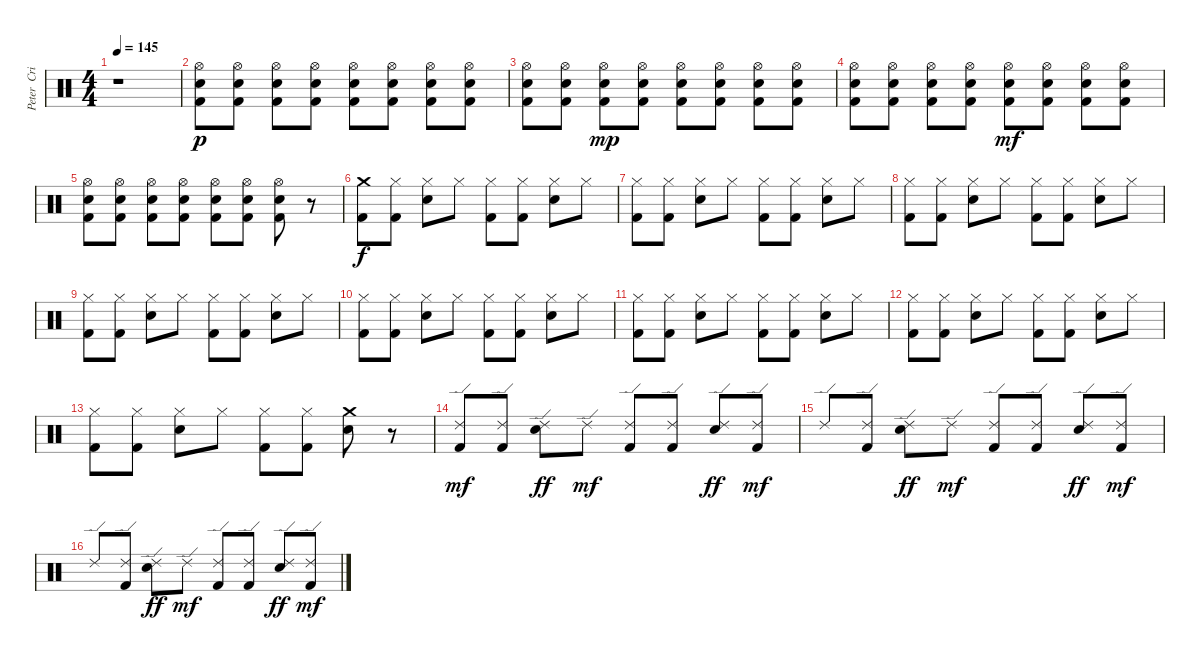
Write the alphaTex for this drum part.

\track ("Peter  Criss [Drums]" "Peter  Cri") {instrument percussion}
\staff {score}
\articulation defaults
\ts (4 4)
\tempo 145
\clef neutral
\ks c
r.1{dy p} |
("Hi-Hat (open)" "Electric Snare (hit)" "Kick (hit) 2").8 ("Hi-Hat (open)" "Electric Snare (hit)" "Kick (hit) 2").8 ("Hi-Hat (open)" "Electric Snare (hit)" "Kick (hit) 2").8 ("Hi-Hat (open)" "Electric Snare (hit)" "Kick (hit) 2").8 ("Hi-Hat (open)" "Electric Snare (hit)" "Kick (hit) 2").8 ("Hi-Hat (open)" "Electric Snare (hit)" "Kick (hit) 2").8 ("Hi-Hat (open)" "Electric Snare (hit)" "Kick (hit) 2").8 ("Hi-Hat (open)" "Electric Snare (hit)" "Kick (hit) 2").8 |
("Hi-Hat (open)" "Electric Snare (hit)" "Kick (hit) 2").8 ("Hi-Hat (open)" "Electric Snare (hit)" "Kick (hit) 2").8 ("Hi-Hat (open)" "Electric Snare (hit)" "Kick (hit) 2").8{dy mp} ("Hi-Hat (open)" "Electric Snare (hit)" "Kick (hit) 2").8 ("Hi-Hat (open)" "Electric Snare (hit)" "Kick (hit) 2").8 ("Hi-Hat (open)" "Electric Snare (hit)" "Kick (hit) 2").8 ("Hi-Hat (open)" "Electric Snare (hit)" "Kick (hit) 2").8 ("Hi-Hat (open)" "Electric Snare (hit)" "Kick (hit) 2").8 |
("Hi-Hat (open)" "Electric Snare (hit)" "Kick (hit) 2").8 ("Hi-Hat (open)" "Electric Snare (hit)" "Kick (hit) 2").8 ("Hi-Hat (open)" "Electric Snare (hit)" "Kick (hit) 2").8 ("Hi-Hat (open)" "Electric Snare (hit)" "Kick (hit) 2").8 ("Hi-Hat (open)" "Electric Snare (hit)" "Kick (hit) 2").8{dy mf} ("Hi-Hat (open)" "Electric Snare (hit)" "Kick (hit) 2").8 ("Hi-Hat (open)" "Electric Snare (hit)" "Kick (hit) 2").8 ("Hi-Hat (open)" "Electric Snare (hit)" "Kick (hit) 2").8 |
("Hi-Hat (open)" "Electric Snare (hit)" "Kick (hit) 2").8 ("Hi-Hat (open)" "Electric Snare (hit)" "Kick (hit) 2").8 ("Hi-Hat (open)" "Electric Snare (hit)" "Kick (hit) 2").8 ("Hi-Hat (open)" "Electric Snare (hit)" "Kick (hit) 2").8 ("Hi-Hat (open)" "Electric Snare (hit)" "Kick (hit) 2").8 ("Hi-Hat (open)" "Electric Snare (hit)" "Kick (hit) 2").8 ("Hi-Hat (open)" "Electric Snare (hit)" "Kick (hit) 2").8 r.8 |
("Crash medium (hit)" "Kick (hit) 2").8{dy f} ("Hi-Hat (closed)" "Kick (hit) 2").8 ("Hi-Hat (closed)" "Electric Snare (hit)").8 "Hi-Hat (closed)".8 ("Hi-Hat (closed)" "Kick (hit) 2").8 ("Hi-Hat (closed)" "Kick (hit) 2").8 ("Hi-Hat (closed)" "Electric Snare (hit)").8 "Hi-Hat (closed)".8 |
("Hi-Hat (closed)" "Kick (hit) 2").8 ("Hi-Hat (closed)" "Kick (hit) 2").8 ("Hi-Hat (closed)" "Electric Snare (hit)").8 "Hi-Hat (closed)".8 ("Hi-Hat (closed)" "Kick (hit) 2").8 ("Hi-Hat (closed)" "Kick (hit) 2").8 ("Hi-Hat (closed)" "Electric Snare (hit)").8 "Hi-Hat (closed)".8 |
("Hi-Hat (closed)" "Kick (hit) 2").8 ("Hi-Hat (closed)" "Kick (hit) 2").8 ("Hi-Hat (closed)" "Electric Snare (hit)").8 "Hi-Hat (closed)".8 ("Hi-Hat (closed)" "Kick (hit) 2").8 ("Hi-Hat (closed)" "Kick (hit) 2").8 ("Hi-Hat (closed)" "Electric Snare (hit)").8 "Hi-Hat (closed)".8 |
("Hi-Hat (closed)" "Kick (hit) 2").8 ("Hi-Hat (closed)" "Kick (hit) 2").8 ("Hi-Hat (closed)" "Electric Snare (hit)").8 "Hi-Hat (closed)".8 ("Hi-Hat (closed)" "Kick (hit) 2").8 ("Hi-Hat (closed)" "Kick (hit) 2").8 ("Hi-Hat (closed)" "Electric Snare (hit)").8 "Hi-Hat (closed)".8 |
("Hi-Hat (closed)" "Kick (hit) 2").8 ("Hi-Hat (closed)" "Kick (hit) 2").8 ("Hi-Hat (closed)" "Electric Snare (hit)").8 "Hi-Hat (closed)".8 ("Hi-Hat (closed)" "Kick (hit) 2").8 ("Hi-Hat (closed)" "Kick (hit) 2").8 ("Hi-Hat (closed)" "Electric Snare (hit)").8 "Hi-Hat (closed)".8 |
("Hi-Hat (closed)" "Kick (hit) 2").8 ("Hi-Hat (closed)" "Kick (hit) 2").8 ("Hi-Hat (closed)" "Electric Snare (hit)").8 "Hi-Hat (closed)".8 ("Hi-Hat (closed)" "Kick (hit) 2").8 ("Hi-Hat (closed)" "Kick (hit) 2").8 ("Hi-Hat (closed)" "Electric Snare (hit)").8 "Hi-Hat (closed)".8 |
("Hi-Hat (closed)" "Kick (hit) 2").8 ("Hi-Hat (closed)" "Kick (hit) 2").8 ("Hi-Hat (closed)" "Electric Snare (hit)").8 "Hi-Hat (closed)".8 ("Hi-Hat (closed)" "Kick (hit) 2").8 ("Hi-Hat (closed)" "Kick (hit) 2").8 ("Hi-Hat (closed)" "Electric Snare (hit)").8 "Hi-Hat (closed)".8 |
("Hi-Hat (closed)" "Kick (hit) 2").8 ("Hi-Hat (closed)" "Kick (hit) 2").8 ("Hi-Hat (closed)" "Electric Snare (hit)").8 "Hi-Hat (closed)".8 ("Hi-Hat (closed)" "Kick (hit) 2").8 ("Hi-Hat (closed)" "Kick (hit) 2").8 ("Crash medium (hit)" "Electric Snare (hit)").8 r.8 |
("Ride (edge) 2" "Kick (hit) 2").8{dy mf} ("Ride (edge) 2" "Kick (hit) 2").8 ("Ride (edge) 2" "Electric Snare (hit)").8{dy ff} "Ride (edge) 2".8{dy mf} ("Ride (edge) 2" "Kick (hit) 2").8 ("Ride (edge) 2" "Kick (hit) 2").8 ("Ride (edge) 2" "Electric Snare (hit)").8{dy ff} ("Ride (edge) 2" "Kick (hit) 2").8{dy mf} |
"Ride (edge) 2".8 ("Ride (edge) 2" "Kick (hit) 2").8 ("Ride (edge) 2" "Electric Snare (hit)").8{dy ff} "Ride (edge) 2".8{dy mf} ("Ride (edge) 2" "Kick (hit) 2").8 ("Ride (edge) 2" "Kick (hit) 2").8 ("Ride (edge) 2" "Electric Snare (hit)").8{dy ff} ("Ride (edge) 2" "Kick (hit) 2").8{dy mf} |
"Ride (edge) 2".8 ("Ride (edge) 2" "Kick (hit) 2").8 ("Ride (edge) 2" "Electric Snare (hit)").8{dy ff} "Ride (edge) 2".8{dy mf} ("Ride (edge) 2" "Kick (hit) 2").8 ("Ride (edge) 2" "Kick (hit) 2").8 ("Ride (edge) 2" "Electric Snare (hit)").8{dy ff} ("Ride (edge) 2" "Kick (hit) 2").8{dy mf}
